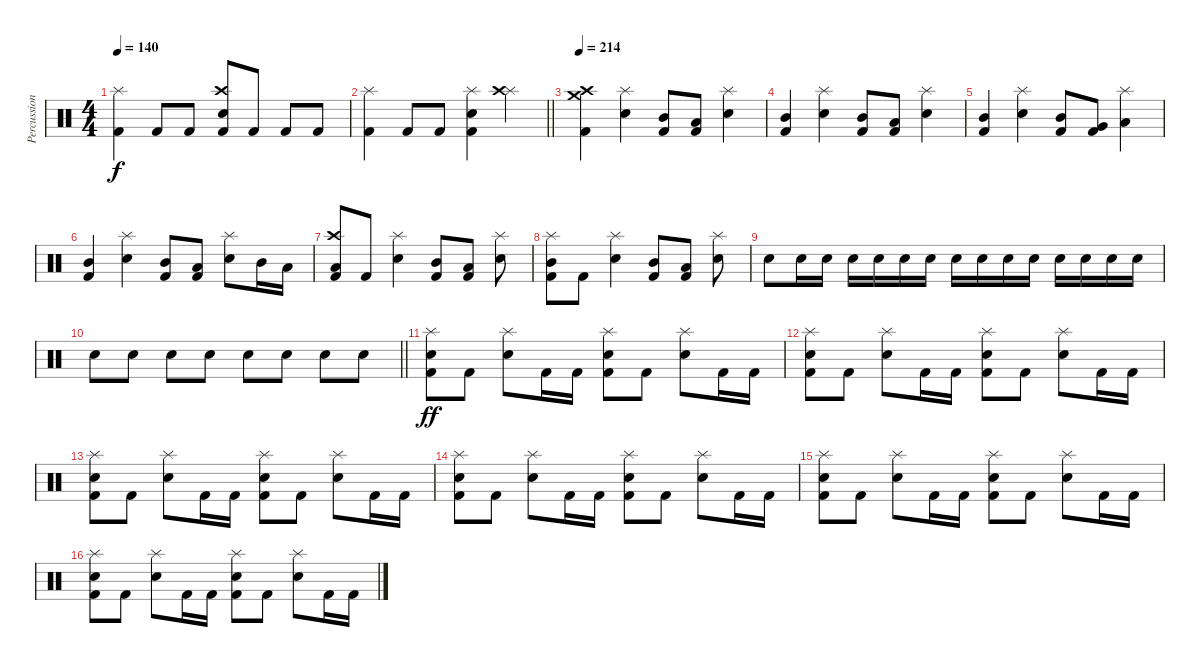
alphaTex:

\track ("Percussion" "Percussion") {instrument percussion}
\staff {score}
\articulation defaults
\ts (4 4)
\tempo 140
\clef neutral
\ks c
("Splash (hit)" "Kick (hit) 2").4{dy f} "Kick (hit) 2".8 "Kick (hit) 2".8 ("Crash high (hit)" "Electric Snare (hit)" "Kick (hit) 2").8 "Kick (hit) 2".8 "Kick (hit) 2".8 "Kick (hit) 2".8 |
\barLineRight lightlight
("Splash (hit)" "Kick (hit) 2").4 "Kick (hit) 2".8 "Kick (hit) 2".8 ("Splash (hit)" "Electric Snare (hit)" "Kick (hit) 2").4 ("Splash (hit)" "Crash high (hit)").4 |
\section ("" "")
\tempo 214
("Crash medium (hit)" "Crash high (hit)" "Kick (hit) 2").4 ("Splash (hit)" "Electric Snare (hit)").4 ("Mid Tom (hit)" "Kick (hit) 2").8 ("Low Tom (hit)" "Kick (hit) 2").8 ("Splash (hit)" "Electric Snare (hit)").4 |
("Mid Tom (hit)" "Kick (hit) 2").4 ("Splash (hit)" "Electric Snare (hit)").4 ("Mid Tom (hit)" "Kick (hit) 2").8 ("Low Tom (hit)" "Kick (hit) 2").8 ("Splash (hit)" "Electric Snare (hit)").4 |
("Mid Tom (hit)" "Kick (hit) 2").4 ("Splash (hit)" "Electric Snare (hit)").4 ("Mid Tom (hit)" "Kick (hit) 2").8 ("Very Low Tom (hit)" "Kick (hit) 2").8 ("Splash (hit)" "Low Tom (hit)").4 |
("Mid Tom (hit)" "Kick (hit) 2").4 ("Splash (hit)" "Electric Snare (hit)").4 ("Mid Tom (hit)" "Kick (hit) 2").8 ("Low Tom (hit)" "Kick (hit) 2").8 ("Splash (hit)" "Electric Snare (hit)").8 "Mid Tom (hit)".16 "Low Tom (hit)".16 |
("Crash high (hit)" "Low Tom (hit)" "Kick (hit) 2").8 "Kick (hit) 2".8 ("Splash (hit)" "Electric Snare (hit)").4 ("Mid Tom (hit)" "Kick (hit) 2").8 ("Low Tom (hit)" "Kick (hit) 2").8 ("Splash (hit)" "Electric Snare (hit)").8 |
("Splash (hit)" "Mid Tom (hit)" "Kick (hit) 2").8 "Kick (hit) 2".8 ("Splash (hit)" "Electric Snare (hit)").4 ("Mid Tom (hit)" "Kick (hit) 2").8 ("Low Tom (hit)" "Kick (hit) 2").8 ("Splash (hit)" "Electric Snare (hit)").8 |
"Electric Snare (hit)".8 "Electric Snare (hit)".16 "Electric Snare (hit)".16 "Electric Snare (hit)".16 "Electric Snare (hit)".16 "Electric Snare (hit)".16 "Electric Snare (hit)".16 "Electric Snare (hit)".16 "Electric Snare (hit)".16 "Electric Snare (hit)".16 "Electric Snare (hit)".16 "Electric Snare (hit)".16 "Electric Snare (hit)".16 "Electric Snare (hit)".16 "Electric Snare (hit)".16 |
\barLineRight lightlight "Electric Snare (hit)".8 "Electric Snare (hit)".8 "Electric Snare (hit)".8 "Electric Snare (hit)".8 "Electric Snare (hit)".8 "Electric Snare (hit)".8 "Electric Snare (hit)".8 "Electric Snare (hit)".8
|
\section ("" "")
("Splash (hit)" "Electric Snare (hit)" "Kick (hit) 2").8{dy ff} "Kick (hit) 2".8 ("Splash (hit)" "Electric Snare (hit)").8 "Kick (hit) 2".16 "Kick (hit) 2".16 ("Splash (hit)" "Electric Snare (hit)" "Kick (hit) 2").8 "Kick (hit) 2".8 ("Splash (hit)" "Electric Snare (hit)").8 "Kick (hit) 2".16 "Kick (hit) 2".16 |
("Splash (hit)" "Electric Snare (hit)" "Kick (hit) 2").8 "Kick (hit) 2".8 ("Splash (hit)" "Electric Snare (hit)").8 "Kick (hit) 2".16 "Kick (hit) 2".16 ("Splash (hit)" "Electric Snare (hit)" "Kick (hit) 2").8 "Kick (hit) 2".8 ("Splash (hit)" "Electric Snare (hit)").8 "Kick (hit) 2".16 "Kick (hit) 2".16 |
("Splash (hit)" "Electric Snare (hit)" "Kick (hit) 2").8 "Kick (hit) 2".8 ("Splash (hit)" "Electric Snare (hit)").8 "Kick (hit) 2".16 "Kick (hit) 2".16 ("Splash (hit)" "Electric Snare (hit)" "Kick (hit) 2").8 "Kick (hit) 2".8 ("Splash (hit)" "Electric Snare (hit)").8 "Kick (hit) 2".16 "Kick (hit) 2".16 |
("Splash (hit)" "Electric Snare (hit)" "Kick (hit) 2").8 "Kick (hit) 2".8 ("Splash (hit)" "Electric Snare (hit)").8 "Kick (hit) 2".16 "Kick (hit) 2".16 ("Splash (hit)" "Electric Snare (hit)" "Kick (hit) 2").8 "Kick (hit) 2".8 ("Splash (hit)" "Electric Snare (hit)").8 "Kick (hit) 2".16 "Kick (hit) 2".16 |
("Splash (hit)" "Electric Snare (hit)" "Kick (hit) 2").8 "Kick (hit) 2".8 ("Splash (hit)" "Electric Snare (hit)").8 "Kick (hit) 2".16 "Kick (hit) 2".16 ("Splash (hit)" "Electric Snare (hit)" "Kick (hit) 2").8 "Kick (hit) 2".8 ("Splash (hit)" "Electric Snare (hit)").8 "Kick (hit) 2".16 "Kick (hit) 2".16 |
("Splash (hit)" "Electric Snare (hit)" "Kick (hit) 2").8 "Kick (hit) 2".8 ("Splash (hit)" "Electric Snare (hit)").8 "Kick (hit) 2".16 "Kick (hit) 2".16 ("Splash (hit)" "Electric Snare (hit)" "Kick (hit) 2").8 "Kick (hit) 2".8 ("Splash (hit)" "Electric Snare (hit)").8 "Kick (hit) 2".16 "Kick (hit) 2".16
